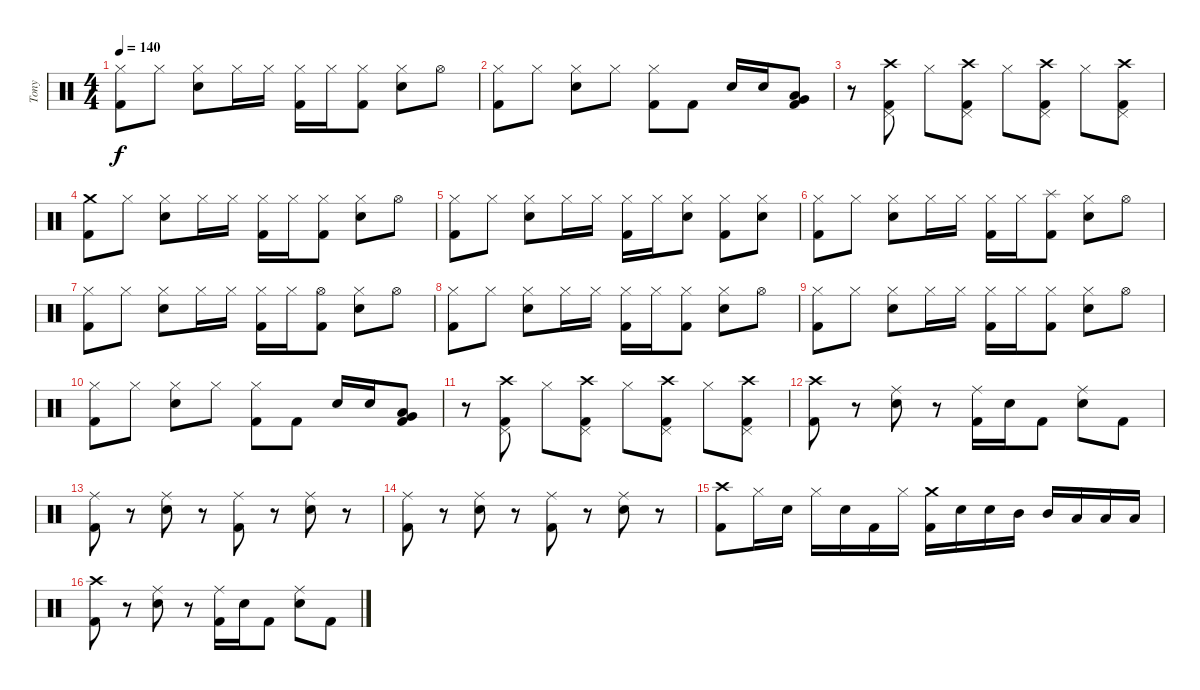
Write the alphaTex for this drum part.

\track ("Tony" "Tony") {instrument percussion}
\staff {score}
\articulation defaults
\ts (4 4)
\tempo 140
\clef neutral
\ks c
("Hi-Hat (closed)" "Kick (hit) 2").8{dy f} "Hi-Hat (closed)".8 ("Hi-Hat (closed)" "Electric Snare (hit)").8 "Hi-Hat (closed)".16 "Hi-Hat (closed)".16 ("Hi-Hat (closed)" "Kick (hit) 2").16 "Hi-Hat (closed)".16 ("Hi-Hat (closed)" "Kick (hit) 2").8 ("Hi-Hat (closed)" "Electric Snare (hit)").8 "Hi-Hat (open)".8 |
("Hi-Hat (closed)" "Kick (hit) 2").8 "Hi-Hat (closed)".8 ("Hi-Hat (closed)" "Electric Snare (hit)").8 "Hi-Hat (closed)".8 ("Hi-Hat (closed)" "Kick (hit) 2").8 "Kick (hit) 2".8 "Electric Snare (hit)".16 "Electric Snare (hit)".16 ("Low Tom (hit)" "Very Low Tom (hit)" "Kick (hit) 2").8 |
r.8 ("Kick (hit) 2" "Pedal Hi-Hat (hit)" "Crash high (hit)").8 "Hi-Hat (closed)".8 ("Kick (hit) 2" "Pedal Hi-Hat (hit)" "Crash high (hit)").8 "Hi-Hat (closed)".8 ("Kick (hit) 2" "Pedal Hi-Hat (hit)" "Crash high (hit)").8 "Hi-Hat (closed)".8 ("Kick (hit) 2" "Pedal Hi-Hat (hit)" "Crash high (hit)").8 |
("Crash medium (hit)" "Kick (hit) 2").8 "Hi-Hat (closed)".8 ("Hi-Hat (closed)" "Electric Snare (hit)").8 "Hi-Hat (closed)".16 "Hi-Hat (closed)".16 ("Hi-Hat (closed)" "Kick (hit) 2").16 "Hi-Hat (closed)".16 ("Hi-Hat (closed)" "Kick (hit) 2").8 ("Hi-Hat (closed)" "Electric Snare (hit)").8 "Hi-Hat (open)".8 |
("Hi-Hat (closed)" "Kick (hit) 2").8 "Hi-Hat (closed)".8 ("Hi-Hat (closed)" "Electric Snare (hit)").8 "Hi-Hat (closed)".16 "Hi-Hat (closed)".16 ("Hi-Hat (closed)" "Kick (hit) 2").16 "Hi-Hat (closed)".16 ("Hi-Hat (closed)" "Electric Snare (hit)").8 ("Hi-Hat (closed)" "Kick (hit) 2").8 ("Hi-Hat (closed)" "Electric Snare (hit)").8 |
("Hi-Hat (closed)" "Kick (hit) 2").8 "Hi-Hat (closed)".8 ("Hi-Hat (closed)" "Electric Snare (hit)").8 "Hi-Hat (closed)".16 "Hi-Hat (closed)".16 ("Hi-Hat (closed)" "Kick (hit) 2").16 "Hi-Hat (closed)".16 ("Splash (hit)" "Kick (hit) 2").8 ("Hi-Hat (closed)" "Electric Snare (hit)").8 "Hi-Hat (open)".8 |
("Hi-Hat (closed)" "Kick (hit) 2").8 "Hi-Hat (closed)".8 ("Hi-Hat (closed)" "Electric Snare (hit)").8 "Hi-Hat (closed)".16 "Hi-Hat (closed)".16 ("Hi-Hat (closed)" "Kick (hit) 2").16 "Hi-Hat (closed)".16 ("Hi-Hat (open)" "Kick (hit) 2").8 ("Hi-Hat (closed)" "Electric Snare (hit)").8 "Hi-Hat (open)".8 |
("Hi-Hat (closed)" "Kick (hit) 2").8 "Hi-Hat (closed)".8 ("Hi-Hat (closed)" "Electric Snare (hit)").8 "Hi-Hat (closed)".16 "Hi-Hat (closed)".16 ("Hi-Hat (closed)" "Kick (hit) 2").16 "Hi-Hat (closed)".16 ("Hi-Hat (closed)" "Kick (hit) 2").8 ("Hi-Hat (closed)" "Electric Snare (hit)").8 "Hi-Hat (open)".8 |
("Hi-Hat (closed)" "Kick (hit) 2").8 "Hi-Hat (closed)".8 ("Hi-Hat (closed)" "Electric Snare (hit)").8 "Hi-Hat (closed)".16 "Hi-Hat (closed)".16 ("Hi-Hat (closed)" "Kick (hit) 2").16 "Hi-Hat (closed)".16 ("Hi-Hat (closed)" "Kick (hit) 2").8 ("Hi-Hat (closed)" "Electric Snare (hit)").8 "Hi-Hat (open)".8 |
("Hi-Hat (closed)" "Kick (hit) 2").8 "Hi-Hat (closed)".8 ("Hi-Hat (closed)" "Electric Snare (hit)").8 "Hi-Hat (closed)".8 ("Hi-Hat (closed)" "Kick (hit) 2").8 "Kick (hit) 2".8 "Electric Snare (hit)".16 "Electric Snare (hit)".16 ("Low Tom (hit)" "Very Low Tom (hit)" "Kick (hit) 2").8 |
r.8 ("Kick (hit) 2" "Pedal Hi-Hat (hit)" "Crash high (hit)").8 "Hi-Hat (closed)".8 ("Kick (hit) 2" "Pedal Hi-Hat (hit)" "Crash high (hit)").8 "Hi-Hat (closed)".8 ("Kick (hit) 2" "Pedal Hi-Hat (hit)" "Crash high (hit)").8 "Hi-Hat (closed)".8 ("Kick (hit) 2" "Pedal Hi-Hat (hit)" "Crash high (hit)").8 |
("Crash high (hit)" "Kick (hit) 2").8 r.8 ("Ride (middle)" "Electric Snare (hit)").8 r.8 ("Ride (middle)" "Kick (hit) 2").16 "Electric Snare (hit)".16 "Kick (hit) 2".8 ("Ride (middle)" "Electric Snare (hit)").8 "Kick (hit) 2".8 |
("Ride (middle)" "Kick (hit) 2").8 r.8 ("Ride (middle)" "Electric Snare (hit)").8 r.8 ("Ride (middle)" "Kick (hit) 2").8 r.8 ("Ride (middle)" "Electric Snare (hit)").8 r.8 |
("Ride (middle)" "Kick (hit) 2").8 r.8 ("Ride (middle)" "Electric Snare (hit)").8 r.8 ("Ride (middle)" "Kick (hit) 2").8 r.8 ("Ride (middle)" "Electric Snare (hit)").8 r.8 |
("Crash high (hit)" "Kick (hit) 2").8 "Hi-Hat (closed)".16 "Electric Snare (hit)".16 "Hi-Hat (closed)".16 "Electric Snare (hit)".16 "Kick (hit) 2".16 "Hi-Hat (closed)".16 ("Crash medium (hit)" "Kick (hit) 2").16 "Electric Snare (hit)".16 "Electric Snare (hit)".16 "Mid Tom (hit)".16 "Mid Tom (hit)".16 "Low Tom (hit)".16 "Low Tom (hit)".16 "Low Tom (hit)".16 |
("Crash high (hit)" "Kick (hit) 2").8 r.8 ("Ride (middle)" "Electric Snare (hit)").8 r.8 ("Ride (middle)" "Kick (hit) 2").16 "Electric Snare (hit)".16 "Kick (hit) 2".8 ("Ride (middle)" "Electric Snare (hit)").8 "Kick (hit) 2".8
